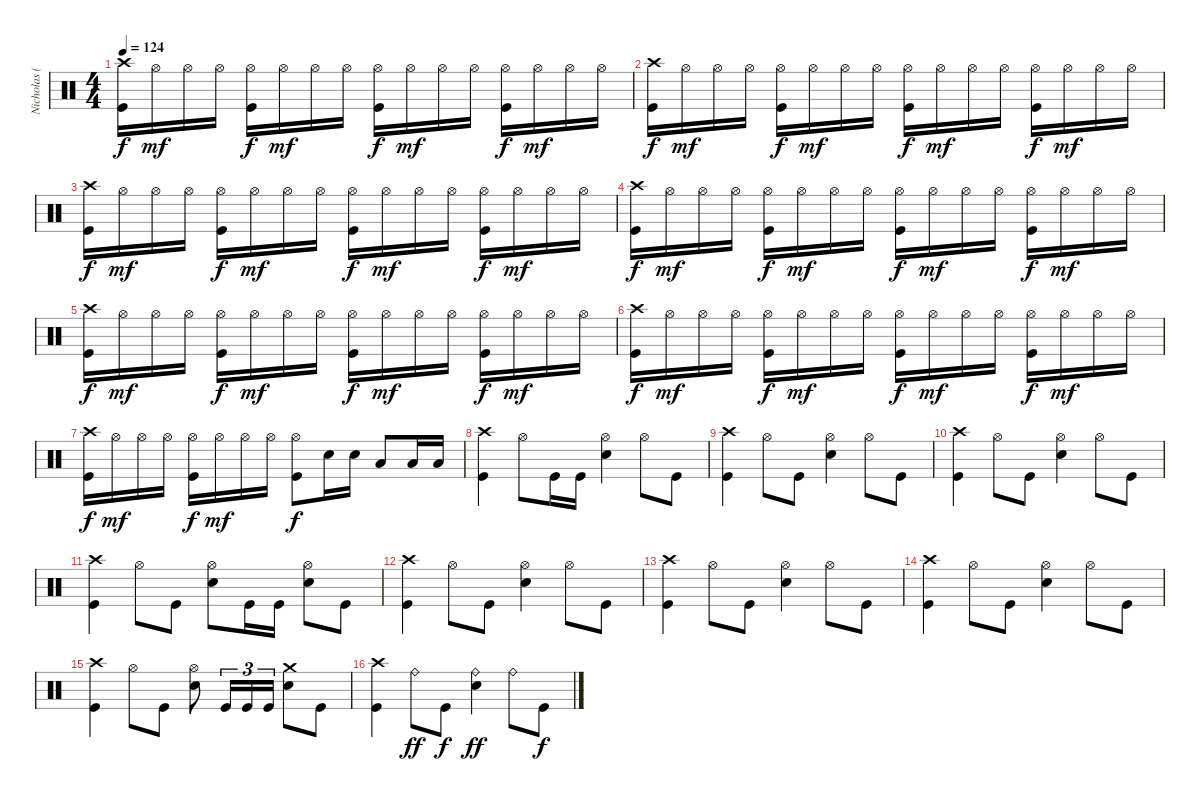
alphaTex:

\track ("Nicholas (Drums)" "Nicholas (") {instrument percussion}
\staff {score}
\articulation defaults
\ts (4 4)
\tempo 124
\clef neutral
\ks c
("Crash high (hit)" "Kick (hit)").16{dy f} "Hi-Hat (open)".16{dy mf} "Hi-Hat (open)".16 "Hi-Hat (open)".16 ("Hi-Hat (open)" "Kick (hit)").16{dy f} "Hi-Hat (open)".16{dy mf} "Hi-Hat (open)".16 "Hi-Hat (open)".16 ("Hi-Hat (open)" "Kick (hit)").16{dy f} "Hi-Hat (open)".16{dy mf} "Hi-Hat (open)".16 "Hi-Hat (open)".16 ("Hi-Hat (open)" "Kick (hit)").16{dy f} "Hi-Hat (open)".16{dy mf} "Hi-Hat (open)".16 "Hi-Hat (open)".16 |
("Crash high (hit)" "Kick (hit)").16{dy f} "Hi-Hat (open)".16{dy mf} "Hi-Hat (open)".16 "Hi-Hat (open)".16 ("Hi-Hat (open)" "Kick (hit)").16{dy f} "Hi-Hat (open)".16{dy mf} "Hi-Hat (open)".16 "Hi-Hat (open)".16 ("Hi-Hat (open)" "Kick (hit)").16{dy f} "Hi-Hat (open)".16{dy mf} "Hi-Hat (open)".16 "Hi-Hat (open)".16 ("Hi-Hat (open)" "Kick (hit)").16{dy f} "Hi-Hat (open)".16{dy mf} "Hi-Hat (open)".16 "Hi-Hat (open)".16 |
("Crash high (hit)" "Kick (hit)").16{dy f} "Hi-Hat (open)".16{dy mf} "Hi-Hat (open)".16 "Hi-Hat (open)".16 ("Hi-Hat (open)" "Kick (hit)").16{dy f} "Hi-Hat (open)".16{dy mf} "Hi-Hat (open)".16 "Hi-Hat (open)".16 ("Hi-Hat (open)" "Kick (hit)").16{dy f} "Hi-Hat (open)".16{dy mf} "Hi-Hat (open)".16 "Hi-Hat (open)".16 ("Hi-Hat (open)" "Kick (hit)").16{dy f} "Hi-Hat (open)".16{dy mf} "Hi-Hat (open)".16 "Hi-Hat (open)".16 |
("Crash high (hit)" "Kick (hit)").16{dy f} "Hi-Hat (open)".16{dy mf} "Hi-Hat (open)".16 "Hi-Hat (open)".16 ("Hi-Hat (open)" "Kick (hit)").16{dy f} "Hi-Hat (open)".16{dy mf} "Hi-Hat (open)".16 "Hi-Hat (open)".16 ("Hi-Hat (open)" "Kick (hit)").16{dy f} "Hi-Hat (open)".16{dy mf} "Hi-Hat (open)".16 "Hi-Hat (open)".16 ("Hi-Hat (open)" "Kick (hit)").16{dy f} "Hi-Hat (open)".16{dy mf} "Hi-Hat (open)".16 "Hi-Hat (open)".16 |
("Crash high (hit)" "Kick (hit)").16{dy f} "Hi-Hat (open)".16{dy mf} "Hi-Hat (open)".16 "Hi-Hat (open)".16 ("Hi-Hat (open)" "Kick (hit)").16{dy f} "Hi-Hat (open)".16{dy mf} "Hi-Hat (open)".16 "Hi-Hat (open)".16 ("Hi-Hat (open)" "Kick (hit)").16{dy f} "Hi-Hat (open)".16{dy mf} "Hi-Hat (open)".16 "Hi-Hat (open)".16 ("Hi-Hat (open)" "Kick (hit)").16{dy f} "Hi-Hat (open)".16{dy mf} "Hi-Hat (open)".16 "Hi-Hat (open)".16 |
("Crash high (hit)" "Kick (hit)").16{dy f} "Hi-Hat (open)".16{dy mf} "Hi-Hat (open)".16 "Hi-Hat (open)".16 ("Hi-Hat (open)" "Kick (hit)").16{dy f} "Hi-Hat (open)".16{dy mf} "Hi-Hat (open)".16 "Hi-Hat (open)".16 ("Hi-Hat (open)" "Kick (hit)").16{dy f} "Hi-Hat (open)".16{dy mf} "Hi-Hat (open)".16 "Hi-Hat (open)".16 ("Hi-Hat (open)" "Kick (hit)").16{dy f} "Hi-Hat (open)".16{dy mf} "Hi-Hat (open)".16 "Hi-Hat (open)".16 |
("Crash high (hit)" "Kick (hit)").16{dy f} "Hi-Hat (open)".16{dy mf} "Hi-Hat (open)".16 "Hi-Hat (open)".16 ("Hi-Hat (open)" "Kick (hit)").16{dy f} "Hi-Hat (open)".16{dy mf} "Hi-Hat (open)".16 "Hi-Hat (open)".16 ("Hi-Hat (open)" "Kick (hit)").8{dy f} "Electric Snare (hit)".16 "Electric Snare (hit)".16 "Low Tom (hit)".8 "Low Tom (hit)".16 "Low Tom (hit)".16 |
("Crash high (hit)" "Kick (hit)").4 "Hi-Hat (open)".8 "Kick (hit)".16 "Kick (hit)".16 ("Hi-Hat (open)" "Electric Snare (hit)").4 "Hi-Hat (open)".8 "Kick (hit)".8 |
("Crash high (hit)" "Kick (hit)").4 "Hi-Hat (open)".8 "Kick (hit)".8 ("Hi-Hat (open)" "Electric Snare (hit)").4 "Hi-Hat (open)".8 "Kick (hit)".8 |
("Crash high (hit)" "Kick (hit)").4 "Hi-Hat (open)".8 "Kick (hit)".8 ("Hi-Hat (open)" "Electric Snare (hit)").4 "Hi-Hat (open)".8 "Kick (hit)".8 |
("Crash high (hit)" "Kick (hit)").4 "Hi-Hat (open)".8 "Kick (hit)".8 ("Hi-Hat (open)" "Electric Snare (hit)").8 "Kick (hit)".16 "Kick (hit)".16 ("Hi-Hat (open)" "Electric Snare (hit)").8 "Kick (hit)".8 |
("Crash high (hit)" "Kick (hit)").4 "Hi-Hat (open)".8 "Kick (hit)".8 ("Hi-Hat (open)" "Electric Snare (hit)").4 "Hi-Hat (open)".8 "Kick (hit)".8 |
("Crash high (hit)" "Kick (hit)").4 "Hi-Hat (open)".8 "Kick (hit)".8 ("Hi-Hat (open)" "Electric Snare (hit)").4 "Hi-Hat (open)".8 "Kick (hit)".8 |
("Crash high (hit)" "Kick (hit)").4 "Hi-Hat (open)".8 "Kick (hit)".8 ("Hi-Hat (open)" "Electric Snare (hit)").4 "Hi-Hat (open)".8 "Kick (hit)".8 |
("Crash high (hit)" "Kick (hit)").4 "Hi-Hat (open)".8 "Kick (hit)".8 ("Hi-Hat (open)" "Electric Snare (hit)").8 "Kick (hit)".16{tu (3 2)} "Kick (hit)".16{tu (3 2)} "Kick (hit)".16{tu (3 2)} ("Crash medium (hit)" "Electric Snare (hit)").8 "Kick (hit)".8 |
("Crash high (hit)" "Kick (hit)").4 "Ride (bell)".8{dy ff} "Kick (hit)".8{dy f} ("Ride (bell)" "Electric Snare (hit)").4{dy ff} "Ride (bell)".8 "Kick (hit)".8{dy f}
